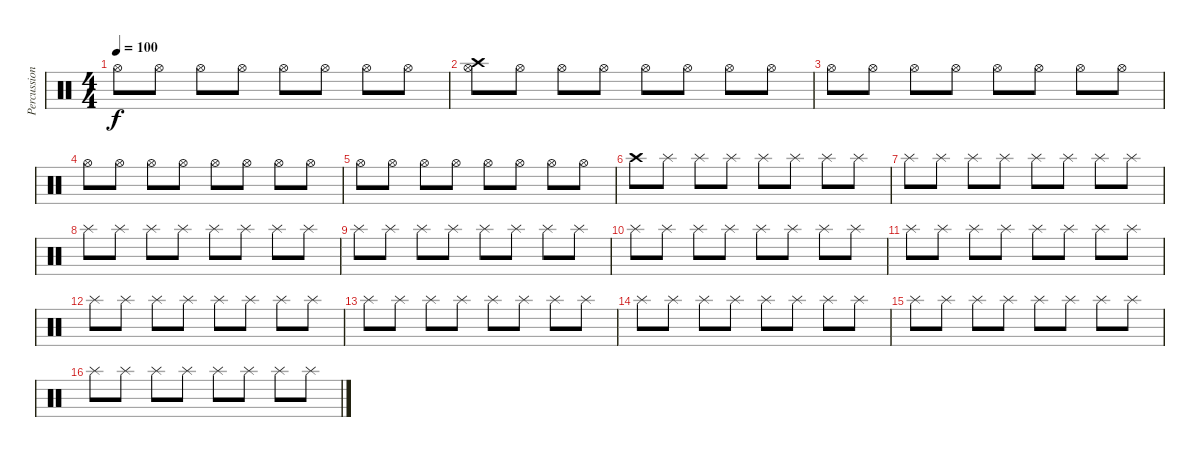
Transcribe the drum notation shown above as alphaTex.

\track ("Percussions" "Percussion") {instrument percussion}
\staff {score}
\articulation defaults
\ts (4 4)
\tempo 100
\clef neutral
\ks c "Hi-Hat (open)".8{dy f} "Hi-Hat (open)".8 "Hi-Hat (open)".8 "Hi-Hat (open)".8 "Hi-Hat (open)".8 "Hi-Hat (open)".8 "Hi-Hat (open)".8 "Hi-Hat (open)".8
|
("Hi-Hat (open)" "Crash high (hit)").8 "Hi-Hat (open)".8 "Hi-Hat (open)".8 "Hi-Hat (open)".8 "Hi-Hat (open)".8 "Hi-Hat (open)".8 "Hi-Hat (open)".8 "Hi-Hat (open)".8 |
"Hi-Hat (open)".8 "Hi-Hat (open)".8 "Hi-Hat (open)".8 "Hi-Hat (open)".8 "Hi-Hat (open)".8 "Hi-Hat (open)".8 "Hi-Hat (open)".8 "Hi-Hat (open)".8 |
"Hi-Hat (open)".8 "Hi-Hat (open)".8 "Hi-Hat (open)".8 "Hi-Hat (open)".8 "Hi-Hat (open)".8 "Hi-Hat (open)".8 "Hi-Hat (open)".8 "Hi-Hat (open)".8 |
"Hi-Hat (open)".8 "Hi-Hat (open)".8 "Hi-Hat (open)".8 "Hi-Hat (open)".8 "Hi-Hat (open)".8 "Hi-Hat (open)".8 "Hi-Hat (open)".8 "Hi-Hat (open)".8 |
"Crash high (hit)".8 "Splash (hit)".8 "Splash (hit)".8 "Splash (hit)".8 "Splash (hit)".8 "Splash (hit)".8 "Splash (hit)".8 "Splash (hit)".8 |
"Splash (hit)".8 "Splash (hit)".8 "Splash (hit)".8 "Splash (hit)".8 "Splash (hit)".8 "Splash (hit)".8 "Splash (hit)".8 "Splash (hit)".8 |
"Splash (hit)".8 "Splash (hit)".8 "Splash (hit)".8 "Splash (hit)".8 "Splash (hit)".8 "Splash (hit)".8 "Splash (hit)".8 "Splash (hit)".8 |
"Splash (hit)".8 "Splash (hit)".8 "Splash (hit)".8 "Splash (hit)".8 "Splash (hit)".8 "Splash (hit)".8 "Splash (hit)".8 "Splash (hit)".8 |
"Splash (hit)".8 "Splash (hit)".8 "Splash (hit)".8 "Splash (hit)".8 "Splash (hit)".8 "Splash (hit)".8 "Splash (hit)".8 "Splash (hit)".8 |
"Splash (hit)".8 "Splash (hit)".8 "Splash (hit)".8 "Splash (hit)".8 "Splash (hit)".8 "Splash (hit)".8 "Splash (hit)".8 "Splash (hit)".8 |
"Splash (hit)".8 "Splash (hit)".8 "Splash (hit)".8 "Splash (hit)".8 "Splash (hit)".8 "Splash (hit)".8 "Splash (hit)".8 "Splash (hit)".8 |
"Splash (hit)".8 "Splash (hit)".8 "Splash (hit)".8 "Splash (hit)".8 "Splash (hit)".8 "Splash (hit)".8 "Splash (hit)".8 "Splash (hit)".8 |
"Splash (hit)".8 "Splash (hit)".8 "Splash (hit)".8 "Splash (hit)".8 "Splash (hit)".8 "Splash (hit)".8 "Splash (hit)".8 "Splash (hit)".8 |
"Splash (hit)".8 "Splash (hit)".8 "Splash (hit)".8 "Splash (hit)".8 "Splash (hit)".8 "Splash (hit)".8 "Splash (hit)".8 "Splash (hit)".8 |
"Splash (hit)".8 "Splash (hit)".8 "Splash (hit)".8 "Splash (hit)".8 "Splash (hit)".8 "Splash (hit)".8 "Splash (hit)".8 "Splash (hit)".8
